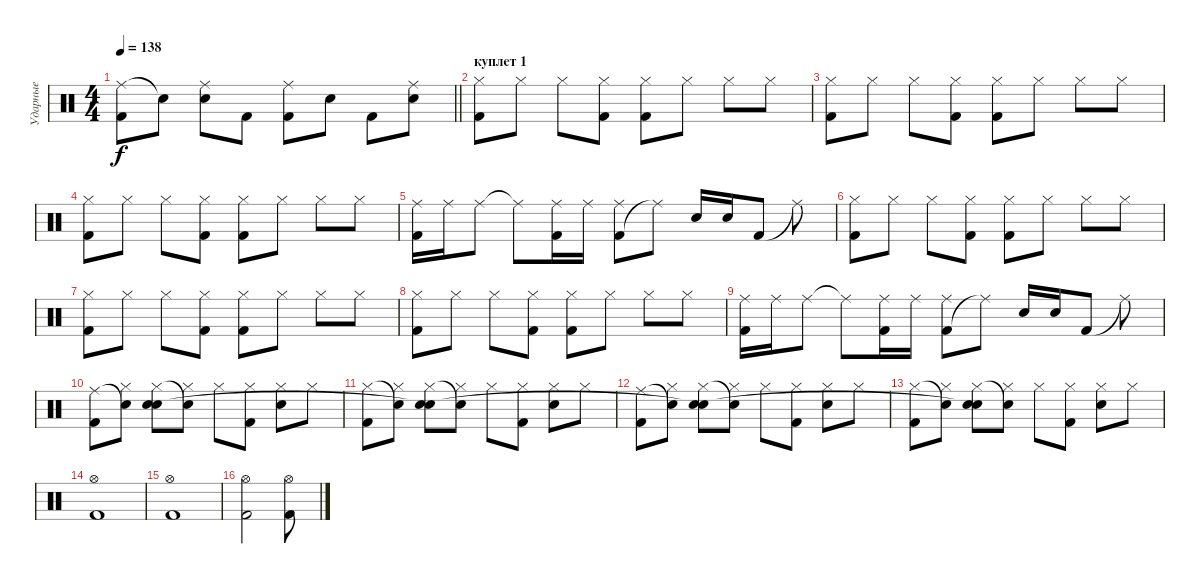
\track ("Ударные" "Ударные") {instrument percussion}
\staff {score}
\articulation defaults
\ts (4 4)
\tempo 138
\clef neutral
\barLineRight lightlight
\ks c
("Ride (middle)" "Kick (hit) 2").8{dy f} "Snare (hit)"{t}.8 ("Ride (middle)" "Snare (hit) 2").8 "Kick (hit) 2".8 ("Ride (middle)" "Kick (hit) 2").8 "Snare (hit) 2".8 "Kick (hit) 2".8 ("Ride (middle)" "Snare (hit) 2").8 |
\section ("" "куплет 1")
("Kick (hit) 2" "Hi-Hat (closed)").8 "Hi-Hat (closed)".8 "Hi-Hat (closed)".8 ("Kick (hit) 2" "Hi-Hat (closed)").8 ("Kick (hit) 2" "Hi-Hat (closed)").8 "Hi-Hat (closed)".8 "Hi-Hat (closed)".8 "Hi-Hat (closed)".8 |
("Kick (hit) 2" "Hi-Hat (closed)").8 "Hi-Hat (closed)".8 "Hi-Hat (closed)".8 ("Kick (hit) 2" "Hi-Hat (closed)").8 ("Kick (hit) 2" "Hi-Hat (closed)").8 "Hi-Hat (closed)".8 "Hi-Hat (closed)".8 "Hi-Hat (closed)".8 |
("Kick (hit) 2" "Hi-Hat (closed)").8 "Hi-Hat (closed)".8 "Hi-Hat (closed)".8 ("Kick (hit) 2" "Hi-Hat (closed)").8 ("Kick (hit) 2" "Hi-Hat (closed)").8 "Hi-Hat (closed)".8 "Hi-Hat (closed)".8 "Hi-Hat (closed)".8 |
("Kick (hit) 2" "Ride (middle)").16 "Ride (middle)".16 "Ride (middle)".8 "Ride (middle)"{t}.8 ("Kick (hit) 2" "Ride (middle)").16 "Ride (middle)".16 ("Kick (hit) 2" "Ride (middle)").8 "Ride (middle)"{t}.8 "Snare (hit) 2".16 "Snare (hit) 2".16 "Kick (hit) 2".8 "Ride (middle)"{t}.8 |
("Kick (hit) 2" "Hi-Hat (closed)").8 "Hi-Hat (closed)".8 "Hi-Hat (closed)".8 ("Kick (hit) 2" "Hi-Hat (closed)").8 ("Kick (hit) 2" "Hi-Hat (closed)").8 "Hi-Hat (closed)".8 "Hi-Hat (closed)".8 "Hi-Hat (closed)".8 |
("Kick (hit) 2" "Hi-Hat (closed)").8 "Hi-Hat (closed)".8 "Hi-Hat (closed)".8 ("Kick (hit) 2" "Hi-Hat (closed)").8 ("Kick (hit) 2" "Hi-Hat (closed)").8 "Hi-Hat (closed)".8 "Hi-Hat (closed)".8 "Hi-Hat (closed)".8 |
("Kick (hit) 2" "Hi-Hat (closed)").8 "Hi-Hat (closed)".8 "Hi-Hat (closed)".8 ("Kick (hit) 2" "Hi-Hat (closed)").8 ("Kick (hit) 2" "Hi-Hat (closed)").8 "Hi-Hat (closed)".8 "Hi-Hat (closed)".8 "Hi-Hat (closed)".8 |
("Kick (hit) 2" "Ride (middle)").16 "Ride (middle)".16 "Ride (middle)".8 "Ride (middle)"{t}.8 ("Kick (hit) 2" "Ride (middle)").16 "Ride (middle)".16 ("Kick (hit) 2" "Ride (middle)").8 "Ride (middle)"{t}.8 "Snare (hit) 2".16 "Snare (hit) 2".16 "Kick (hit) 2".8 "Ride (middle)"{t}.8 |
("Kick (hit) 2" "Ride (middle)").8 ("Hi-Hat (closed)" "Snare (hit)"{t}).8 ("Snare (hit) 2" "Hi-Hat (closed)" "Snare (hit)").8 ("Hi-Hat (closed)" "Snare (hit)"{t}).8 "Hi-Hat (closed)".8 ("Kick (hit) 2" "Hi-Hat (closed)").8 ("Snare (hit) 2" "Hi-Hat (closed)").8 "Hi-Hat (closed)".8 |
("Kick (hit) 2" "Hi-Hat (closed)").8 ("Hi-Hat (closed)" "Snare (hit)"{t}).8 ("Snare (hit) 2" "Hi-Hat (closed)" "Snare (hit)"{t}).8 ("Hi-Hat (closed)" "Snare (hit)"{t}).8 "Hi-Hat (closed)".8 ("Kick (hit) 2" "Hi-Hat (closed)").8 ("Snare (hit) 2" "Hi-Hat (closed)").8 "Hi-Hat (closed)".8 |
("Kick (hit) 2" "Ride (middle)").8 ("Hi-Hat (closed)" "Snare (hit)"{t}).8 ("Snare (hit) 2" "Hi-Hat (closed)" "Snare (hit)"{t}).8 ("Hi-Hat (closed)" "Snare (hit)"{t}).8 "Hi-Hat (closed)".8 ("Kick (hit) 2" "Hi-Hat (closed)").8 ("Snare (hit) 2" "Hi-Hat (closed)").8 "Hi-Hat (closed)".8 |
("Kick (hit) 2" "Hi-Hat (closed)").8 ("Hi-Hat (closed)" "Snare (hit)"{t}).8 ("Snare (hit) 2" "Hi-Hat (closed)" "Snare (hit)"{t}).8 ("Hi-Hat (closed)" "Snare (hit)"{t}).8 "Hi-Hat (closed)".8 ("Kick (hit) 2" "Hi-Hat (closed)").8 ("Snare (hit) 2" "Hi-Hat (closed)").8 "Hi-Hat (closed)".8 |
("Kick (hit) 2" "Hi-Hat (open)").1 |
("Kick (hit) 2" "Hi-Hat (open)").1 |
("Kick (hit) 2" "Hi-Hat (open)").2 ("Kick (hit) 2" "Hi-Hat (open)").8
